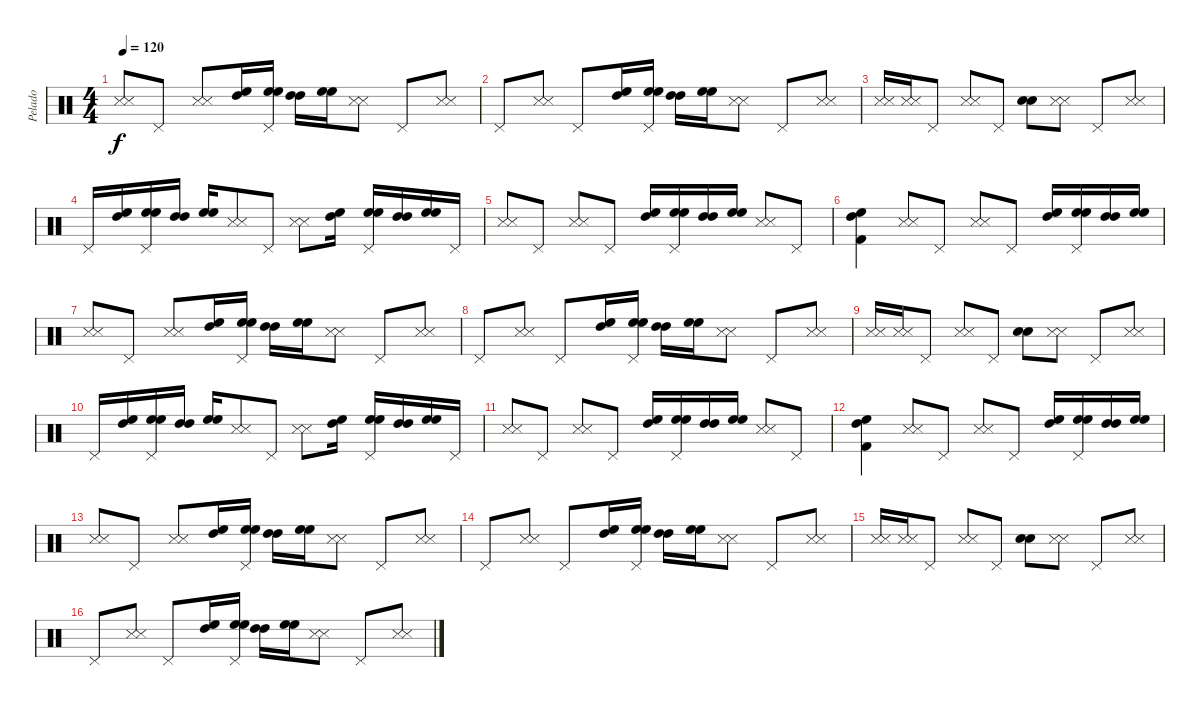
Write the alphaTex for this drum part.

\track ("Pelado" "Pelado") {instrument percussion}
\staff {score}
\articulation defaults
\ts (4 4)
\tempo 120
\clef neutral
\ks c
("Snare (side stick) 3" "Snare (side stick) 3").8{dy f} "Pedal Hi-Hat (hit)".8 ("Snare (side stick) 3" "Snare (side stick) 3").8 ("High Floor Tom (hit)" "High Tom (hit)").16 ("Pedal Hi-Hat (hit)" "High Floor Tom (hit)" "High Floor Tom (hit)").16 ("High Tom (hit)" "High Tom (hit)").16 ("High Floor Tom (hit)" "High Floor Tom (hit)").16 ("Snare (side stick) 3" "Snare (side stick) 3").8 "Pedal Hi-Hat (hit)".8 ("Snare (side stick) 3" "Snare (side stick) 3").8 |
"Pedal Hi-Hat (hit)".8 ("Snare (side stick) 3" "Snare (side stick) 3").8 "Pedal Hi-Hat (hit)".8 ("High Floor Tom (hit)" "High Tom (hit)").16 ("Pedal Hi-Hat (hit)" "High Floor Tom (hit)" "High Floor Tom (hit)").16 ("High Tom (hit)" "High Tom (hit)").16 ("High Floor Tom (hit)" "High Floor Tom (hit)").16 ("Snare (side stick) 3" "Snare (side stick) 3").8 "Pedal Hi-Hat (hit)".8 ("Snare (side stick) 3" "Snare (side stick) 3").8 |
("Snare (side stick) 3" "Snare (side stick) 3").16 ("Snare (side stick) 3" "Snare (side stick) 3").16 "Pedal Hi-Hat (hit)".8 ("Snare (side stick) 3" "Snare (side stick) 3").8 "Pedal Hi-Hat (hit)".8 ("Electric Snare (hit)" "Snare (hit) 2").8 ("Snare (side stick) 3" "Snare (side stick) 3").8 "Pedal Hi-Hat (hit)".8 ("Snare (side stick) 3" "Snare (side stick) 3").8 |
"Pedal Hi-Hat (hit)".16 ("High Floor Tom (hit)" "High Tom (hit)").16 ("Pedal Hi-Hat (hit)" "High Floor Tom (hit)" "High Floor Tom (hit)").16 ("High Tom (hit)" "High Tom (hit)").16 ("High Floor Tom (hit)" "High Floor Tom (hit)").16 ("Snare (side stick) 3" "Snare (side stick) 3").8 "Pedal Hi-Hat (hit)".8 ("Snare (side stick) 3" "Snare (side stick) 3").8 ("High Floor Tom (hit)" "High Tom (hit)").16 ("Pedal Hi-Hat (hit)" "High Floor Tom (hit)" "High Floor Tom (hit)").16 ("High Tom (hit)" "High Tom (hit)").16 ("High Floor Tom (hit)" "High Floor Tom (hit)").16 "Pedal Hi-Hat (hit)".16 |
("Snare (side stick) 3" "Snare (side stick) 3").8 "Pedal Hi-Hat (hit)".8 ("Snare (side stick) 3" "Snare (side stick) 3").8 "Pedal Hi-Hat (hit)".8 ("High Floor Tom (hit)" "High Tom (hit)").16 ("Pedal Hi-Hat (hit)" "High Floor Tom (hit)" "High Floor Tom (hit)").16 ("High Tom (hit)" "High Tom (hit)").16 ("High Floor Tom (hit)" "High Floor Tom (hit)").16 ("Snare (side stick) 3" "Snare (side stick) 3").8 "Pedal Hi-Hat (hit)".8 |
("Kick (hit) 2" "High Floor Tom (hit)" "High Tom (hit)").4 ("Snare (side stick) 3" "Snare (side stick) 3").8 "Pedal Hi-Hat (hit)".8 ("Snare (side stick) 3" "Snare (side stick) 3").8 "Pedal Hi-Hat (hit)".8 ("High Floor Tom (hit)" "High Tom (hit)").16 ("Pedal Hi-Hat (hit)" "High Floor Tom (hit)" "High Floor Tom (hit)").16 ("High Tom (hit)" "High Tom (hit)").16 ("High Floor Tom (hit)" "High Floor Tom (hit)").16 |
("Snare (side stick) 3" "Snare (side stick) 3").8 "Pedal Hi-Hat (hit)".8 ("Snare (side stick) 3" "Snare (side stick) 3").8 ("High Floor Tom (hit)" "High Tom (hit)").16 ("Pedal Hi-Hat (hit)" "High Floor Tom (hit)" "High Floor Tom (hit)").16 ("High Tom (hit)" "High Tom (hit)").16 ("High Floor Tom (hit)" "High Floor Tom (hit)").16 ("Snare (side stick) 3" "Snare (side stick) 3").8 "Pedal Hi-Hat (hit)".8 ("Snare (side stick) 3" "Snare (side stick) 3").8 |
"Pedal Hi-Hat (hit)".8 ("Snare (side stick) 3" "Snare (side stick) 3").8 "Pedal Hi-Hat (hit)".8 ("High Floor Tom (hit)" "High Tom (hit)").16 ("Pedal Hi-Hat (hit)" "High Floor Tom (hit)" "High Floor Tom (hit)").16 ("High Tom (hit)" "High Tom (hit)").16 ("High Floor Tom (hit)" "High Floor Tom (hit)").16 ("Snare (side stick) 3" "Snare (side stick) 3").8 "Pedal Hi-Hat (hit)".8 ("Snare (side stick) 3" "Snare (side stick) 3").8 |
("Snare (side stick) 3" "Snare (side stick) 3").16 ("Snare (side stick) 3" "Snare (side stick) 3").16 "Pedal Hi-Hat (hit)".8 ("Snare (side stick) 3" "Snare (side stick) 3").8 "Pedal Hi-Hat (hit)".8 ("Electric Snare (hit)" "Snare (hit) 2").8 ("Snare (side stick) 3" "Snare (side stick) 3").8 "Pedal Hi-Hat (hit)".8 ("Snare (side stick) 3" "Snare (side stick) 3").8 |
"Pedal Hi-Hat (hit)".16 ("High Floor Tom (hit)" "High Tom (hit)").16 ("Pedal Hi-Hat (hit)" "High Floor Tom (hit)" "High Floor Tom (hit)").16 ("High Tom (hit)" "High Tom (hit)").16 ("High Floor Tom (hit)" "High Floor Tom (hit)").16 ("Snare (side stick) 3" "Snare (side stick) 3").8 "Pedal Hi-Hat (hit)".8 ("Snare (side stick) 3" "Snare (side stick) 3").8 ("High Floor Tom (hit)" "High Tom (hit)").16 ("Pedal Hi-Hat (hit)" "High Floor Tom (hit)" "High Floor Tom (hit)").16 ("High Tom (hit)" "High Tom (hit)").16 ("High Floor Tom (hit)" "High Floor Tom (hit)").16 "Pedal Hi-Hat (hit)".16 |
("Snare (side stick) 3" "Snare (side stick) 3").8 "Pedal Hi-Hat (hit)".8 ("Snare (side stick) 3" "Snare (side stick) 3").8 "Pedal Hi-Hat (hit)".8 ("High Floor Tom (hit)" "High Tom (hit)").16 ("Pedal Hi-Hat (hit)" "High Floor Tom (hit)" "High Floor Tom (hit)").16 ("High Tom (hit)" "High Tom (hit)").16 ("High Floor Tom (hit)" "High Floor Tom (hit)").16 ("Snare (side stick) 3" "Snare (side stick) 3").8 "Pedal Hi-Hat (hit)".8 |
("Kick (hit) 2" "High Floor Tom (hit)" "High Tom (hit)").4 ("Snare (side stick) 3" "Snare (side stick) 3").8 "Pedal Hi-Hat (hit)".8 ("Snare (side stick) 3" "Snare (side stick) 3").8 "Pedal Hi-Hat (hit)".8 ("High Floor Tom (hit)" "High Tom (hit)").16 ("Pedal Hi-Hat (hit)" "High Floor Tom (hit)" "High Floor Tom (hit)").16 ("High Tom (hit)" "High Tom (hit)").16 ("High Floor Tom (hit)" "High Floor Tom (hit)").16 |
("Snare (side stick) 3" "Snare (side stick) 3").8 "Pedal Hi-Hat (hit)".8 ("Snare (side stick) 3" "Snare (side stick) 3").8 ("High Floor Tom (hit)" "High Tom (hit)").16 ("Pedal Hi-Hat (hit)" "High Floor Tom (hit)" "High Floor Tom (hit)").16 ("High Tom (hit)" "High Tom (hit)").16 ("High Floor Tom (hit)" "High Floor Tom (hit)").16 ("Snare (side stick) 3" "Snare (side stick) 3").8 "Pedal Hi-Hat (hit)".8 ("Snare (side stick) 3" "Snare (side stick) 3").8 |
"Pedal Hi-Hat (hit)".8 ("Snare (side stick) 3" "Snare (side stick) 3").8 "Pedal Hi-Hat (hit)".8 ("High Floor Tom (hit)" "High Tom (hit)").16 ("Pedal Hi-Hat (hit)" "High Floor Tom (hit)" "High Floor Tom (hit)").16 ("High Tom (hit)" "High Tom (hit)").16 ("High Floor Tom (hit)" "High Floor Tom (hit)").16 ("Snare (side stick) 3" "Snare (side stick) 3").8 "Pedal Hi-Hat (hit)".8 ("Snare (side stick) 3" "Snare (side stick) 3").8 |
("Snare (side stick) 3" "Snare (side stick) 3").16 ("Snare (side stick) 3" "Snare (side stick) 3").16 "Pedal Hi-Hat (hit)".8 ("Snare (side stick) 3" "Snare (side stick) 3").8 "Pedal Hi-Hat (hit)".8 ("Electric Snare (hit)" "Snare (hit) 2").8 ("Snare (side stick) 3" "Snare (side stick) 3").8 "Pedal Hi-Hat (hit)".8 ("Snare (side stick) 3" "Snare (side stick) 3").8 |
"Pedal Hi-Hat (hit)".8 ("Snare (side stick) 3" "Snare (side stick) 3").8 "Pedal Hi-Hat (hit)".8 ("High Floor Tom (hit)" "High Tom (hit)").16 ("Pedal Hi-Hat (hit)" "High Floor Tom (hit)" "High Floor Tom (hit)").16 ("High Tom (hit)" "High Tom (hit)").16 ("High Floor Tom (hit)" "High Floor Tom (hit)").16 ("Snare (side stick) 3" "Snare (side stick) 3").8 "Pedal Hi-Hat (hit)".8 ("Snare (side stick) 3" "Snare (side stick) 3").8
